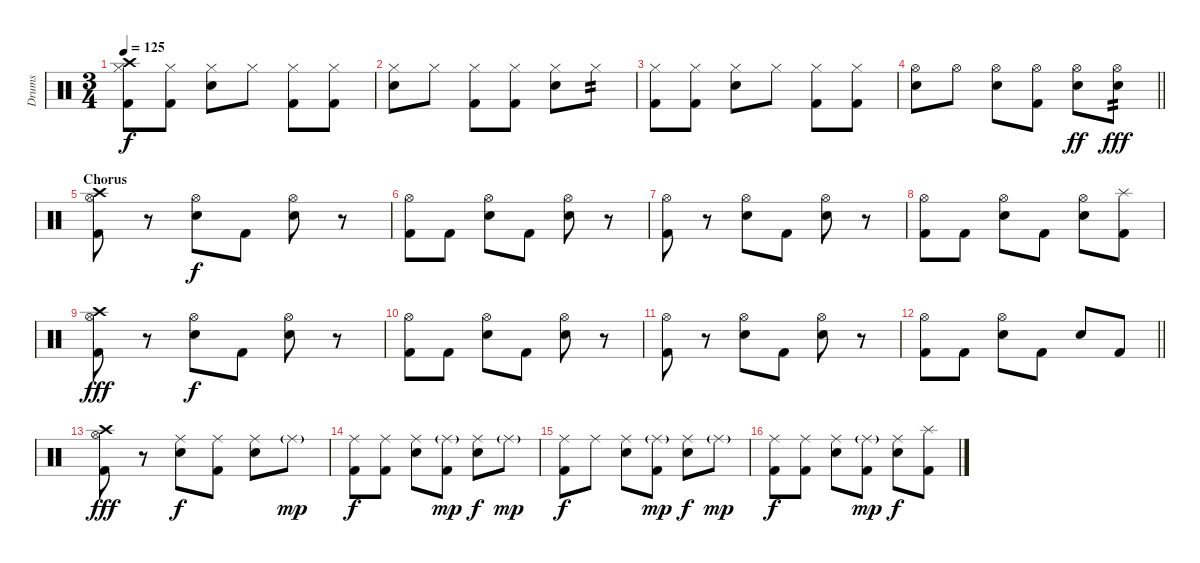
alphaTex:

\track ("Drums" "Drums") {instrument percussion}
\staff {score}
\articulation defaults
\ts (3 4)
\tempo 125
\clef neutral
\ks c
("Crash high (hit)" "Hi-Hat (closed)" "Kick (hit) 2").8{dy f} ("Hi-Hat (closed)" "Kick (hit) 2").8 ("Hi-Hat (closed)" "Electric Snare (hit)").8 "Hi-Hat (closed)".8 ("Hi-Hat (closed)" "Kick (hit) 2").8 ("Hi-Hat (closed)" "Kick (hit) 2").8 |
("Hi-Hat (closed)" "Electric Snare (hit)").8 "Hi-Hat (closed)".8 ("Hi-Hat (closed)" "Kick (hit) 2").8 ("Hi-Hat (closed)" "Kick (hit) 2").8 ("Hi-Hat (closed)" "Electric Snare (hit)").8 "Hi-Hat (closed)".8{tp 2} |
("Hi-Hat (closed)" "Kick (hit) 2").8 ("Hi-Hat (closed)" "Kick (hit) 2").8 ("Hi-Hat (closed)" "Electric Snare (hit)").8 "Hi-Hat (closed)".8 ("Hi-Hat (closed)" "Kick (hit) 2").8 ("Hi-Hat (closed)" "Kick (hit) 2").8 |
\barLineRight lightlight
("Hi-Hat (open)" "Electric Snare (hit)").8 "Hi-Hat (open)".8 ("Hi-Hat (open)" "Electric Snare (hit)").8 ("Hi-Hat (open)" "Kick (hit) 2").8 ("Hi-Hat (open)" "Electric Snare (hit)").8{dy ff} ("Hi-Hat (open)" "Electric Snare (hit)").8{tp 2 dy fff} |
\section ("" "Chorus")
("Crash high (hit)" "Hi-Hat (open)" "Kick (hit) 2").8 r.8 ("Hi-Hat (open)" "Electric Snare (hit)").8{dy f} "Kick (hit) 2".8 ("Hi-Hat (open)" "Electric Snare (hit)").8 r.8 |
("Hi-Hat (open)" "Kick (hit) 2").8 "Kick (hit) 2".8 ("Hi-Hat (open)" "Electric Snare (hit)").8 "Kick (hit) 2".8 ("Hi-Hat (open)" "Electric Snare (hit)").8 r.8 |
("Hi-Hat (open)" "Kick (hit) 2").8 r.8 ("Hi-Hat (open)" "Electric Snare (hit)").8 "Kick (hit) 2".8 ("Hi-Hat (open)" "Electric Snare (hit)").8 r.8 |
("Hi-Hat (open)" "Kick (hit) 2").8 "Kick (hit) 2".8 ("Hi-Hat (open)" "Electric Snare (hit)").8 "Kick (hit) 2".8 ("Hi-Hat (open)" "Electric Snare (hit)").8 ("Splash (hit)" "Kick (hit) 2").8 |
("Crash high (hit)" "Hi-Hat (open)" "Kick (hit) 2").8{dy fff} r.8 ("Hi-Hat (open)" "Electric Snare (hit)").8{dy f} "Kick (hit) 2".8 ("Hi-Hat (open)" "Electric Snare (hit)").8 r.8 |
("Hi-Hat (open)" "Kick (hit) 2").8 "Kick (hit) 2".8 ("Hi-Hat (open)" "Electric Snare (hit)").8 "Kick (hit) 2".8 ("Hi-Hat (open)" "Electric Snare (hit)").8 r.8 |
("Hi-Hat (open)" "Kick (hit) 2").8 r.8 ("Hi-Hat (open)" "Electric Snare (hit)").8 "Kick (hit) 2".8 ("Hi-Hat (open)" "Electric Snare (hit)").8 r.8 |
\barLineRight lightlight
("Hi-Hat (open)" "Kick (hit) 2").8 "Kick (hit) 2".8 ("Hi-Hat (open)" "Electric Snare (hit)").8 "Kick (hit) 2".8 "Electric Snare (hit)".8 "Kick (hit) 2".8 |
("Crash high (hit)" "Hi-Hat (open)" "Kick (hit) 2").8{dy fff} r.8 ("Ride (middle)" "Electric Snare (hit)").8{dy f} ("Ride (middle)" "Kick (hit) 2").8 ("Ride (middle)" "Electric Snare (hit)").8 "Ride (middle)"{g}.8{dy mp} |
("Ride (middle)" "Kick (hit) 2").8{dy f} ("Ride (middle)" "Kick (hit) 2").8 ("Ride (middle)" "Electric Snare (hit)").8 ("Ride (middle)"{g} "Kick (hit) 2").8{dy mp} ("Ride (middle)" "Electric Snare (hit)").8{dy f} "Ride (middle)"{g}.8{dy mp} |
("Ride (middle)" "Kick (hit) 2").8{dy f} "Ride (middle)".8 ("Ride (middle)" "Electric Snare (hit)").8 ("Ride (middle)"{g} "Kick (hit) 2").8{dy mp} ("Ride (middle)" "Electric Snare (hit)").8{dy f} "Ride (middle)"{g}.8{dy mp} |
("Ride (middle)" "Kick (hit) 2").8{dy f} ("Ride (middle)" "Kick (hit) 2").8 ("Ride (middle)" "Electric Snare (hit)").8 ("Ride (middle)"{g} "Kick (hit) 2").8{dy mp} ("Ride (middle)" "Electric Snare (hit)").8{dy f} ("Splash (hit)" "Kick (hit) 2").8
